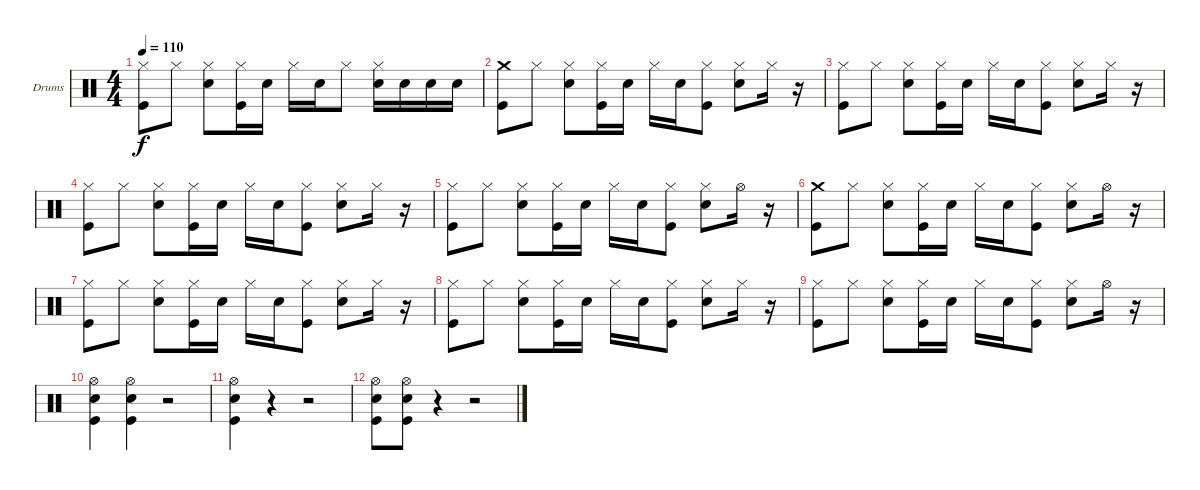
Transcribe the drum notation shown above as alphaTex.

\bracketExtendMode groupsimilarinstruments
\firstSystemTrackNameOrientation horizontal
\otherSystemsTrackNameOrientation horizontal
\track ("Drumkit" "Drums") {instrument percussion}
\staff {score}
\articulation defaults
\ts (4 4)
\tempo 110
\clef neutral
\ks c
("Hi-Hat (closed)" "Kick (hit)").8{dy f} "Hi-Hat (closed)".8 ("Hi-Hat (closed)" "Snare (hit) 2").8 ("Hi-Hat (closed)" "Kick (hit)").16 "Snare (hit) 2".16 "Hi-Hat (closed)".16 "Snare (hit) 2".16 "Hi-Hat (closed)".8 ("Hi-Hat (closed)" "Snare (hit) 2").16 "Snare (hit) 2".16 "Snare (hit) 2".16 "Snare (hit) 2".16 |
("Crash medium (hit)" "Kick (hit)").8 "Hi-Hat (closed)".8 ("Hi-Hat (closed)" "Snare (hit) 2").8 ("Hi-Hat (closed)" "Kick (hit)").16 "Snare (hit) 2".16 "Hi-Hat (closed)".16 "Snare (hit) 2".16 ("Hi-Hat (closed)" "Kick (hit)").8 ("Hi-Hat (closed)" "Snare (hit) 2").8 "Hi-Hat (closed)".16 r.16 |
("Hi-Hat (closed)" "Kick (hit)").8 "Hi-Hat (closed)".8 ("Hi-Hat (closed)" "Snare (hit) 2").8 ("Hi-Hat (closed)" "Kick (hit)").16 "Snare (hit) 2".16 "Hi-Hat (closed)".16 "Snare (hit) 2".16 ("Hi-Hat (closed)" "Kick (hit)").8 ("Hi-Hat (closed)" "Snare (hit) 2").8 "Hi-Hat (closed)".16 r.16 |
("Hi-Hat (closed)" "Kick (hit)").8 "Hi-Hat (closed)".8 ("Hi-Hat (closed)" "Snare (hit) 2").8 ("Hi-Hat (closed)" "Kick (hit)").16 "Snare (hit) 2".16 "Hi-Hat (closed)".16 "Snare (hit) 2".16 ("Hi-Hat (closed)" "Kick (hit)").8 ("Hi-Hat (closed)" "Snare (hit) 2").8 "Hi-Hat (closed)".16 r.16 |
("Hi-Hat (closed)" "Kick (hit)").8 "Hi-Hat (closed)".8 ("Hi-Hat (closed)" "Snare (hit) 2").8 ("Hi-Hat (closed)" "Kick (hit)").16 "Snare (hit) 2".16 "Hi-Hat (closed)".16 "Snare (hit) 2".16 ("Hi-Hat (closed)" "Kick (hit)").8 ("Hi-Hat (closed)" "Snare (hit) 2").8 "Hi-Hat (open)".16 r.16 |
("Crash medium (hit)" "Kick (hit)").8 "Hi-Hat (closed)".8 ("Hi-Hat (closed)" "Snare (hit) 2").8 ("Hi-Hat (closed)" "Kick (hit)").16 "Snare (hit) 2".16 "Hi-Hat (closed)".16 "Snare (hit) 2".16 ("Hi-Hat (closed)" "Kick (hit)").8 ("Hi-Hat (closed)" "Snare (hit) 2").8 "Hi-Hat (open)".16 r.16 |
("Hi-Hat (closed)" "Kick (hit)").8 "Hi-Hat (closed)".8 ("Hi-Hat (closed)" "Snare (hit) 2").8 ("Hi-Hat (closed)" "Kick (hit)").16 "Snare (hit) 2".16 "Hi-Hat (closed)".16 "Snare (hit) 2".16 ("Hi-Hat (closed)" "Kick (hit)").8 ("Hi-Hat (closed)" "Snare (hit) 2").8 "Hi-Hat (closed)".16 r.16 |
("Hi-Hat (closed)" "Kick (hit)").8 "Hi-Hat (closed)".8 ("Hi-Hat (closed)" "Snare (hit) 2").8 ("Hi-Hat (closed)" "Kick (hit)").16 "Snare (hit) 2".16 "Hi-Hat (closed)".16 "Snare (hit) 2".16 ("Hi-Hat (closed)" "Kick (hit)").8 ("Hi-Hat (closed)" "Snare (hit) 2").8 "Hi-Hat (closed)".16 r.16 |
("Hi-Hat (closed)" "Kick (hit)").8 "Hi-Hat (closed)".8 ("Hi-Hat (closed)" "Snare (hit) 2").8 ("Hi-Hat (closed)" "Kick (hit)").16 "Snare (hit) 2".16 "Hi-Hat (closed)".16 "Snare (hit) 2".16 ("Hi-Hat (closed)" "Kick (hit)").8 ("Hi-Hat (closed)" "Snare (hit) 2").8 "Hi-Hat (open)".16 r.16 |
("Kick (hit)" "Snare (hit) 2" "Hi-Hat (open)").4 ("Kick (hit)" "Snare (hit) 2" "Hi-Hat (open)").4 r.2 |
("Kick (hit)" "Snare (hit) 2" "Hi-Hat (open)").4 r.4 r.2 |
("Kick (hit)" "Snare (hit) 2" "Hi-Hat (open)").8 ("Kick (hit)" "Snare (hit) 2" "Hi-Hat (open)").8 r.4 r.2
